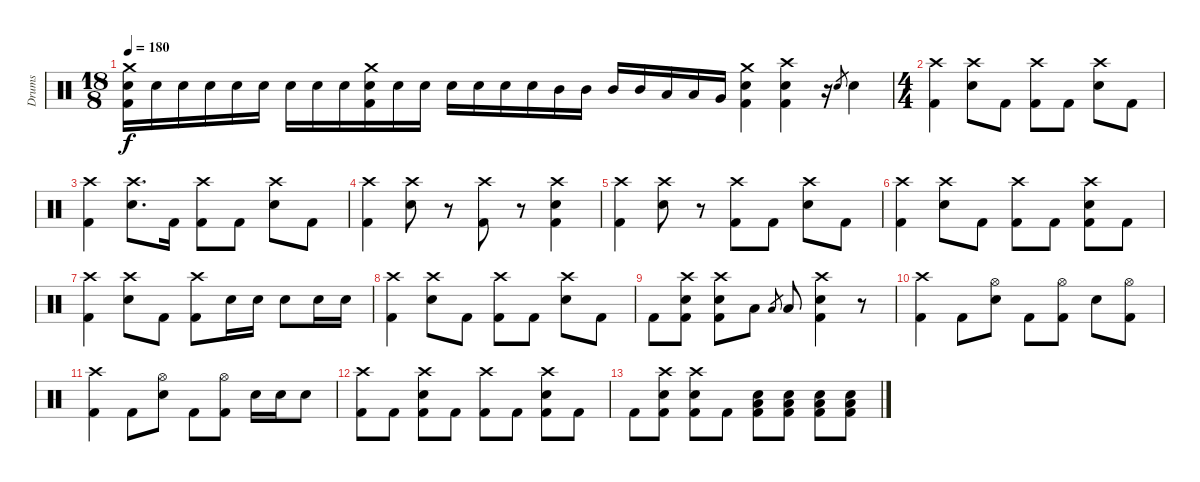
\track ("Drums" "Drums") {instrument percussion}
\staff {score}
\articulation defaults
\ts (18 8)
\tempo 180
\clef neutral
\ks c
("Crash medium (hit)" "Snare (hit) 2" "Kick (hit) 2").16{dy f} "Snare (hit) 2".16 "Snare (hit) 2".16 "Snare (hit) 2".16 "Snare (hit) 2".16 "Snare (hit) 2".16 "Snare (hit) 2".16 "Snare (hit) 2".16 "Snare (hit) 2".16 ("Crash medium (hit)" "Snare (hit) 2" "Kick (hit) 2").16 "Snare (hit) 2".16 "Snare (hit) 2".16 "Snare (hit) 2".16 "Snare (hit) 2".16 "Snare (hit) 2".16 "Snare (hit) 2".16 "Mid Tom (hit)".16 "Mid Tom (hit)".16 "Mid Tom (hit)".16 "Mid Tom (hit)".16 "Low Tom (hit)".16 "Low Tom (hit)".16 "Very Low Tom (hit)".16 ("Crash medium (hit)" "Snare (hit) 2" "Kick (hit) 2").4 ("Crash high (hit)" "Snare (hit) 2" "Kick (hit) 2").4 r.16 "Snare (hit) 2".8{gr} "Snare (hit) 2".4 |
\ts (4 4)
("Crash high (hit)" "Kick (hit) 2").4 ("Crash high (hit)" "Snare (hit) 2").8 "Kick (hit) 2".8 ("Crash high (hit)" "Kick (hit) 2").8 "Kick (hit) 2".8 ("Crash high (hit)" "Snare (hit) 2").8 "Kick (hit) 2".8 |
("Crash high (hit)" "Kick (hit) 2").4 ("Crash high (hit)" "Snare (hit) 2").8{d} "Kick (hit) 2".16 ("Crash high (hit)" "Kick (hit) 2").8 "Kick (hit) 2".8 ("Crash high (hit)" "Snare (hit) 2").8 "Kick (hit) 2".8 |
("Crash high (hit)" "Kick (hit) 2").4 ("Crash high (hit)" "Snare (hit) 2").8 r.8 ("Crash high (hit)" "Kick (hit) 2").8 r.8 ("Crash high (hit)" "Snare (hit) 2" "Kick (hit) 2").4 |
("Crash high (hit)" "Kick (hit) 2").4 ("Crash high (hit)" "Snare (hit) 2").8 r.8 ("Crash high (hit)" "Kick (hit) 2").8 "Kick (hit) 2".8 ("Crash high (hit)" "Snare (hit) 2").8 "Kick (hit) 2".8 |
("Crash high (hit)" "Kick (hit) 2").4 ("Crash high (hit)" "Snare (hit) 2").8 "Kick (hit) 2".8 ("Crash high (hit)" "Kick (hit) 2").8 "Kick (hit) 2".8 ("Crash high (hit)" "Snare (hit) 2" "Kick (hit) 2").8 "Kick (hit) 2".8 |
("Crash high (hit)" "Kick (hit) 2").4 ("Crash high (hit)" "Snare (hit) 2").8 "Kick (hit) 2".8 ("Crash high (hit)" "Kick (hit) 2").8 "Snare (hit) 2".16 "Snare (hit) 2".16 "Snare (hit) 2".8 "Snare (hit) 2".16 "Snare (hit) 2".16 |
("Crash high (hit)" "Kick (hit) 2").4 ("Crash high (hit)" "Snare (hit) 2").8 "Kick (hit) 2".8 ("Crash high (hit)" "Kick (hit) 2").8 "Kick (hit) 2".8 ("Crash high (hit)" "Snare (hit) 2").8 "Kick (hit) 2".8 |
"Kick (hit) 2".8 ("Crash high (hit)" "Snare (hit) 2" "Kick (hit) 2").8 ("Crash high (hit)" "Snare (hit) 2" "Kick (hit) 2").8 "Low Floor Tom (hit)".8 "Low Floor Tom (hit)".8{gr} "Low Floor Tom (hit)".8 ("Crash high (hit)" "Snare (hit) 2" "Kick (hit) 2").4 r.8 |
("Crash high (hit)" "Kick (hit) 2").4 "Kick (hit) 2".8 ("Hi-Hat (open)" "Snare (hit) 2").8 "Kick (hit) 2".8 ("Hi-Hat (open)" "Kick (hit) 2").8 "Snare (hit) 2".8 ("Hi-Hat (open)" "Kick (hit) 2").8 |
("Crash high (hit)" "Kick (hit) 2").4 "Kick (hit) 2".8 ("Hi-Hat (open)" "Snare (hit) 2").8 "Kick (hit) 2".8 ("Hi-Hat (open)" "Kick (hit) 2").8 "Snare (hit) 2".16 "Snare (hit) 2".16 "Snare (hit) 2".8 |
("Crash high (hit)" "Kick (hit) 2").8 "Kick (hit) 2".8 ("Crash high (hit)" "Snare (hit) 2" "Kick (hit) 2").8 "Kick (hit) 2".8 ("Crash high (hit)" "Kick (hit) 2").8 "Kick (hit) 2".8 ("Crash high (hit)" "Snare (hit) 2" "Kick (hit) 2").8 "Kick (hit) 2".8 |
"Kick (hit) 2".8 ("Crash high (hit)" "Snare (hit) 2" "Kick (hit) 2").8 ("Crash high (hit)" "Snare (hit) 2" "Kick (hit) 2").8 "Kick (hit) 2".8 ("Low Floor Tom (hit)" "Snare (hit) 2" "Kick (hit) 2").8 ("Low Floor Tom (hit)" "Snare (hit) 2" "Kick (hit) 2").8 ("Low Floor Tom (hit)" "Snare (hit) 2" "Kick (hit) 2").8 ("Low Floor Tom (hit)" "Snare (hit) 2" "Kick (hit) 2").8
